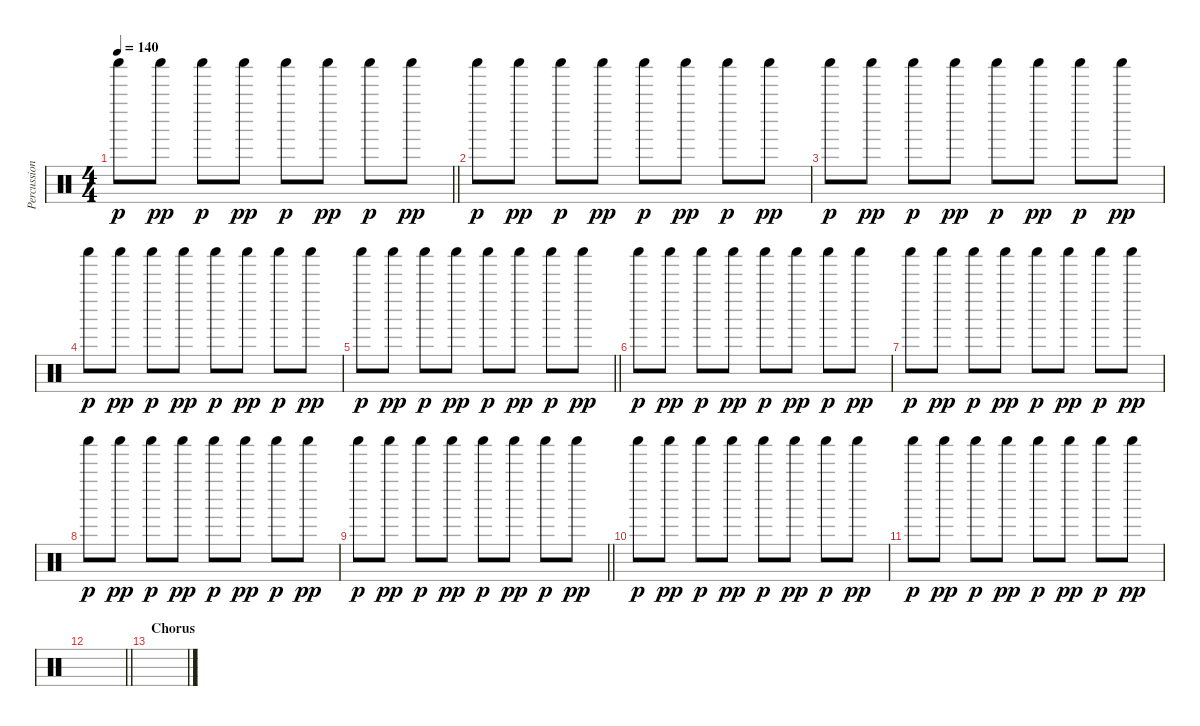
\track ("Percussion" "Percussion") {instrument percussion}
\staff {score}
\articulation defaults
\ts (4 4)
\tempo 140
\clef neutral
\barLineRight lightlight
\ks c "Shaker (hit)".8{dy p} "Shaker (hit)".8{dy pp} "Shaker (hit)".8{dy p} "Shaker (hit)".8{dy pp} "Shaker (hit)".8{dy p} "Shaker (hit)".8{dy pp} "Shaker (hit)".8{dy p} "Shaker (hit)".8{dy pp}
|
"Shaker (hit)".8{dy p} "Shaker (hit)".8{dy pp} "Shaker (hit)".8{dy p} "Shaker (hit)".8{dy pp} "Shaker (hit)".8{dy p} "Shaker (hit)".8{dy pp} "Shaker (hit)".8{dy p} "Shaker (hit)".8{dy pp} |
"Shaker (hit)".8{dy p} "Shaker (hit)".8{dy pp} "Shaker (hit)".8{dy p} "Shaker (hit)".8{dy pp} "Shaker (hit)".8{dy p} "Shaker (hit)".8{dy pp} "Shaker (hit)".8{dy p} "Shaker (hit)".8{dy pp} |
"Shaker (hit)".8{dy p} "Shaker (hit)".8{dy pp} "Shaker (hit)".8{dy p} "Shaker (hit)".8{dy pp} "Shaker (hit)".8{dy p} "Shaker (hit)".8{dy pp} "Shaker (hit)".8{dy p} "Shaker (hit)".8{dy pp} |
\barLineRight lightlight "Shaker (hit)".8{dy p} "Shaker (hit)".8{dy pp} "Shaker (hit)".8{dy p} "Shaker (hit)".8{dy pp} "Shaker (hit)".8{dy p} "Shaker (hit)".8{dy pp} "Shaker (hit)".8{dy p} "Shaker (hit)".8{dy pp}
|
"Shaker (hit)".8{dy p} "Shaker (hit)".8{dy pp} "Shaker (hit)".8{dy p} "Shaker (hit)".8{dy pp} "Shaker (hit)".8{dy p} "Shaker (hit)".8{dy pp} "Shaker (hit)".8{dy p} "Shaker (hit)".8{dy pp} |
"Shaker (hit)".8{dy p} "Shaker (hit)".8{dy pp} "Shaker (hit)".8{dy p} "Shaker (hit)".8{dy pp} "Shaker (hit)".8{dy p} "Shaker (hit)".8{dy pp} "Shaker (hit)".8{dy p} "Shaker (hit)".8{dy pp} |
"Shaker (hit)".8{dy p} "Shaker (hit)".8{dy pp} "Shaker (hit)".8{dy p} "Shaker (hit)".8{dy pp} "Shaker (hit)".8{dy p} "Shaker (hit)".8{dy pp} "Shaker (hit)".8{dy p} "Shaker (hit)".8{dy pp} |
\barLineRight lightlight "Shaker (hit)".8{dy p} "Shaker (hit)".8{dy pp} "Shaker (hit)".8{dy p} "Shaker (hit)".8{dy pp} "Shaker (hit)".8{dy p} "Shaker (hit)".8{dy pp} "Shaker (hit)".8{dy p} "Shaker (hit)".8{dy pp}
|
"Shaker (hit)".8{dy p} "Shaker (hit)".8{dy pp} "Shaker (hit)".8{dy p} "Shaker (hit)".8{dy pp} "Shaker (hit)".8{dy p} "Shaker (hit)".8{dy pp} "Shaker (hit)".8{dy p} "Shaker (hit)".8{dy pp} |
"Shaker (hit)".8{dy p} "Shaker (hit)".8{dy pp} "Shaker (hit)".8{dy p} "Shaker (hit)".8{dy pp} "Shaker (hit)".8{dy p} "Shaker (hit)".8{dy pp} "Shaker (hit)".8{dy p} "Shaker (hit)".8{dy pp} |
\barLineRight lightlight
|
\section ("" "Chorus")
